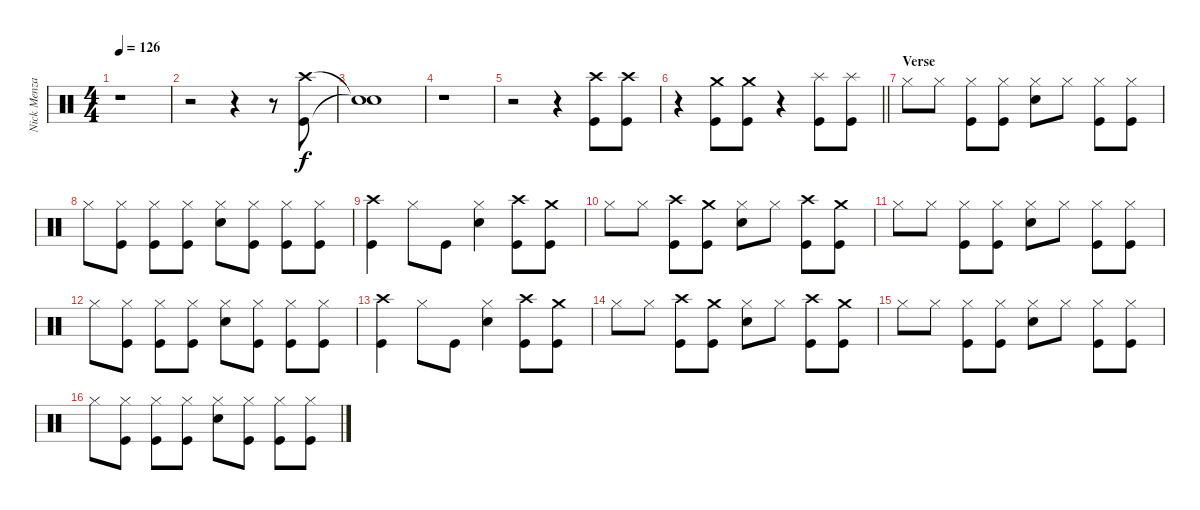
\track ("Nick Menza" "Nick Menza") {instrument percussion}
\staff {score}
\articulation defaults
\ts (4 4)
\tempo 126
\clef neutral
\ks c
r.1{dy f} |
r.2 r.4 r.8 ("Kick (hit)" "Crash high (hit)").8 |
("Snare (hit)"{t} "Snare (hit)"{t}).1 |
r.1 |
r.2 r.4 ("Kick (hit)" "Crash high (hit)").8 ("Kick (hit)" "Crash high (hit)").8 |
\barLineRight lightlight
r.4 ("Kick (hit)" "Crash medium (hit)").8 ("Kick (hit)" "Crash medium (hit)").8 r.4 ("Kick (hit)" "Splash (hit)").8 ("Kick (hit)" "Splash (hit)").8 |
\section ("" "Verse")
"Hi-Hat (closed)".8 "Hi-Hat (closed)".8 ("Kick (hit)" "Hi-Hat (closed)").8 ("Kick (hit)" "Hi-Hat (closed)").8 ("Hi-Hat (closed)" "Snare (hit) 2").8 "Hi-Hat (closed)".8 ("Kick (hit)" "Hi-Hat (closed)").8 ("Kick (hit)" "Hi-Hat (closed)").8 |
"Hi-Hat (closed)".8 ("Kick (hit)" "Hi-Hat (closed)").8 ("Kick (hit)" "Hi-Hat (closed)").8 ("Kick (hit)" "Hi-Hat (closed)").8 ("Hi-Hat (closed)" "Snare (hit) 2").8 ("Kick (hit)" "Hi-Hat (closed)").8 ("Kick (hit)" "Hi-Hat (closed)").8 ("Kick (hit)" "Hi-Hat (closed)").8 |
("Kick (hit)" "Crash high (hit)").4 "Hi-Hat (closed)".8 "Kick (hit)".8 ("Hi-Hat (closed)" "Snare (hit) 2").4 ("Kick (hit)" "Crash high (hit)").8 ("Kick (hit)" "Crash medium (hit)").8 |
"Hi-Hat (closed)".8 "Hi-Hat (closed)".8 ("Kick (hit)" "Crash high (hit)").8 ("Kick (hit)" "Crash medium (hit)").8 ("Hi-Hat (closed)" "Snare (hit) 2").8 "Hi-Hat (closed)".8 ("Kick (hit)" "Crash high (hit)").8 ("Kick (hit)" "Crash medium (hit)").8 |
"Hi-Hat (closed)".8 "Hi-Hat (closed)".8 ("Kick (hit)" "Hi-Hat (closed)").8 ("Kick (hit)" "Hi-Hat (closed)").8 ("Hi-Hat (closed)" "Snare (hit) 2").8 "Hi-Hat (closed)".8 ("Kick (hit)" "Hi-Hat (closed)").8 ("Kick (hit)" "Hi-Hat (closed)").8 |
"Hi-Hat (closed)".8 ("Kick (hit)" "Hi-Hat (closed)").8 ("Kick (hit)" "Hi-Hat (closed)").8 ("Kick (hit)" "Hi-Hat (closed)").8 ("Hi-Hat (closed)" "Snare (hit) 2").8 ("Kick (hit)" "Hi-Hat (closed)").8 ("Kick (hit)" "Hi-Hat (closed)").8 ("Kick (hit)" "Hi-Hat (closed)").8 |
("Kick (hit)" "Crash high (hit)").4 "Hi-Hat (closed)".8 "Kick (hit)".8 ("Hi-Hat (closed)" "Snare (hit) 2").4 ("Kick (hit)" "Crash high (hit)").8 ("Kick (hit)" "Crash medium (hit)").8 |
"Hi-Hat (closed)".8 "Hi-Hat (closed)".8 ("Kick (hit)" "Crash high (hit)").8 ("Kick (hit)" "Crash medium (hit)").8 ("Hi-Hat (closed)" "Snare (hit) 2").8 "Hi-Hat (closed)".8 ("Kick (hit)" "Crash high (hit)").8 ("Kick (hit)" "Crash medium (hit)").8 |
"Hi-Hat (closed)".8 "Hi-Hat (closed)".8 ("Kick (hit)" "Hi-Hat (closed)").8 ("Kick (hit)" "Hi-Hat (closed)").8 ("Hi-Hat (closed)" "Snare (hit) 2").8 "Hi-Hat (closed)".8 ("Kick (hit)" "Hi-Hat (closed)").8 ("Kick (hit)" "Hi-Hat (closed)").8 |
"Hi-Hat (closed)".8 ("Kick (hit)" "Hi-Hat (closed)").8 ("Kick (hit)" "Hi-Hat (closed)").8 ("Kick (hit)" "Hi-Hat (closed)").8 ("Hi-Hat (closed)" "Snare (hit) 2").8 ("Kick (hit)" "Hi-Hat (closed)").8 ("Kick (hit)" "Hi-Hat (closed)").8 ("Kick (hit)" "Hi-Hat (closed)").8
